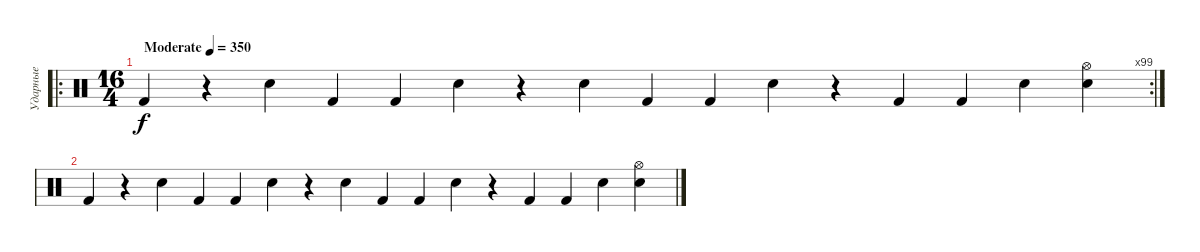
\track ("Ударные" "Ударные") {instrument percussion}
\staff {score}
\articulation defaults
\ro
\rc 99
\ts (16 4)
\tempo (350 "Moderate")
\clef neutral
\ks c "Kick (hit) 2".4{dy f}
r.4 "Electric Snare (hit)".4 "Kick (hit) 2".4 "Kick (hit) 2".4 "Electric Snare (hit)".4 r.4 "Electric Snare (hit)".4 "Kick (hit) 2".4 "Kick (hit) 2".4 "Electric Snare (hit)".4 r.4 "Kick (hit) 2".4 "Kick (hit) 2".4 "Electric Snare (hit)".4 ("Electric Snare (hit)" "Hi-Hat (open)").4 |
"Kick (hit) 2".4 r.4 "Electric Snare (hit)".4 "Kick (hit) 2".4 "Kick (hit) 2".4 "Electric Snare (hit)".4 r.4 "Electric Snare (hit)".4 "Kick (hit) 2".4 "Kick (hit) 2".4 "Electric Snare (hit)".4 r.4 "Kick (hit) 2".4 "Kick (hit) 2".4 "Electric Snare (hit)".4 ("Electric Snare (hit)" "Hi-Hat (open)").4
